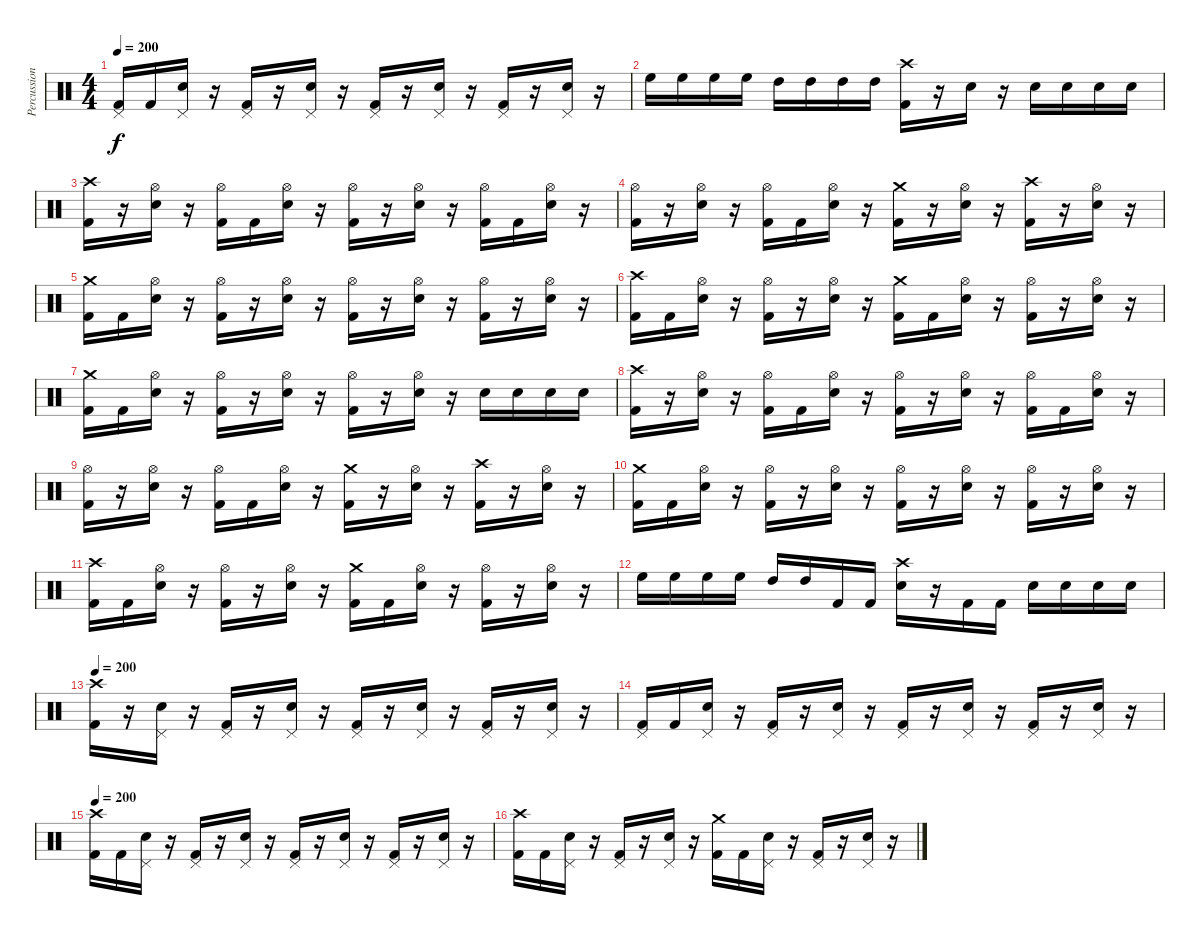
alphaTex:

\track ("Percussion" "Percussion") {instrument percussion}
\staff {score}
\articulation defaults
\ts (4 4)
\tempo 200
\clef neutral
\ks c
("Pedal Hi-Hat (hit)" "Kick (hit) 2").16{dy f} "Kick (hit) 2".16 ("Pedal Hi-Hat (hit)" "Snare (hit) 2").16 r.16 ("Pedal Hi-Hat (hit)" "Kick (hit) 2").16 r.16 ("Pedal Hi-Hat (hit)" "Snare (hit) 2").16 r.16 ("Pedal Hi-Hat (hit)" "Kick (hit) 2").16 r.16 ("Pedal Hi-Hat (hit)" "Snare (hit) 2").16 r.16 ("Pedal Hi-Hat (hit)" "Kick (hit) 2").16 r.16 ("Pedal Hi-Hat (hit)" "Snare (hit) 2").16 r.16 |
"High Floor Tom (hit)".16 "High Floor Tom (hit)".16 "High Floor Tom (hit)".16 "High Floor Tom (hit)".16 "High Tom (hit)".16 "High Tom (hit)".16 "High Tom (hit)".16 "High Tom (hit)".16 ("Crash high (hit)" "Kick (hit) 2").16 r.16 "Snare (hit) 2".16 r.16 "Snare (hit) 2".16 "Snare (hit) 2".16 "Snare (hit) 2".16 "Snare (hit) 2".16 |
("Crash high (hit)" "Kick (hit) 2").16 r.16 ("Hi-Hat (open)" "Snare (hit) 2").16 r.16 ("Hi-Hat (open)" "Kick (hit) 2").16 "Kick (hit) 2".16 ("Hi-Hat (open)" "Snare (hit) 2").16 r.16 ("Hi-Hat (open)" "Kick (hit) 2").16 r.16 ("Hi-Hat (open)" "Snare (hit) 2").16 r.16 ("Hi-Hat (open)" "Kick (hit) 2").16 "Kick (hit) 2".16 ("Hi-Hat (open)" "Snare (hit) 2").16 r.16 |
("Hi-Hat (open)" "Kick (hit) 2").16 r.16 ("Hi-Hat (open)" "Snare (hit) 2").16 r.16 ("Hi-Hat (open)" "Kick (hit) 2").16 "Kick (hit) 2".16 ("Hi-Hat (open)" "Snare (hit) 2").16 r.16 ("Crash medium (hit)" "Kick (hit) 2").16 r.16 ("Hi-Hat (open)" "Snare (hit) 2").16 r.16 ("Crash high (hit)" "Kick (hit) 2").16 r.16 ("Hi-Hat (open)" "Snare (hit) 2").16 r.16 |
("Crash medium (hit)" "Kick (hit) 2").16 "Kick (hit) 2".16 ("Hi-Hat (open)" "Snare (hit) 2").16 r.16 ("Hi-Hat (open)" "Kick (hit) 2").16 r.16 ("Hi-Hat (open)" "Snare (hit) 2").16 r.16 ("Hi-Hat (open)" "Kick (hit) 2").16 r.16 ("Hi-Hat (open)" "Snare (hit) 2").16 r.16 ("Hi-Hat (open)" "Kick (hit) 2").16 r.16 ("Hi-Hat (open)" "Snare (hit) 2").16 r.16 |
("Crash high (hit)" "Kick (hit) 2").16 "Kick (hit) 2".16 ("Hi-Hat (open)" "Snare (hit) 2").16 r.16 ("Hi-Hat (open)" "Kick (hit) 2").16 r.16 ("Hi-Hat (open)" "Snare (hit) 2").16 r.16 ("Crash medium (hit)" "Kick (hit) 2").16 "Kick (hit) 2".16 ("Hi-Hat (open)" "Snare (hit) 2").16 r.16 ("Hi-Hat (open)" "Kick (hit) 2").16 r.16 ("Hi-Hat (open)" "Snare (hit) 2").16 r.16 |
("Crash medium (hit)" "Kick (hit) 2").16 "Kick (hit) 2".16 ("Hi-Hat (open)" "Snare (hit) 2").16 r.16 ("Hi-Hat (open)" "Kick (hit) 2").16 r.16 ("Hi-Hat (open)" "Snare (hit) 2").16 r.16 ("Hi-Hat (open)" "Kick (hit) 2").16 r.16 ("Hi-Hat (open)" "Snare (hit) 2").16 r.16 "Snare (hit) 2".16 "Snare (hit) 2".16 "Snare (hit) 2".16 "Snare (hit) 2".16 |
("Crash high (hit)" "Kick (hit) 2").16 r.16 ("Hi-Hat (open)" "Snare (hit) 2").16 r.16 ("Hi-Hat (open)" "Kick (hit) 2").16 "Kick (hit) 2".16 ("Hi-Hat (open)" "Snare (hit) 2").16 r.16 ("Hi-Hat (open)" "Kick (hit) 2").16 r.16 ("Hi-Hat (open)" "Snare (hit) 2").16 r.16 ("Hi-Hat (open)" "Kick (hit) 2").16 "Kick (hit) 2".16 ("Hi-Hat (open)" "Snare (hit) 2").16 r.16 |
("Hi-Hat (open)" "Kick (hit) 2").16 r.16 ("Hi-Hat (open)" "Snare (hit) 2").16 r.16 ("Hi-Hat (open)" "Kick (hit) 2").16 "Kick (hit) 2".16 ("Hi-Hat (open)" "Snare (hit) 2").16 r.16 ("Crash medium (hit)" "Kick (hit) 2").16 r.16 ("Hi-Hat (open)" "Snare (hit) 2").16 r.16 ("Crash high (hit)" "Kick (hit) 2").16 r.16 ("Hi-Hat (open)" "Snare (hit) 2").16 r.16 |
("Crash medium (hit)" "Kick (hit) 2").16 "Kick (hit) 2".16 ("Hi-Hat (open)" "Snare (hit) 2").16 r.16 ("Hi-Hat (open)" "Kick (hit) 2").16 r.16 ("Hi-Hat (open)" "Snare (hit) 2").16 r.16 ("Hi-Hat (open)" "Kick (hit) 2").16 r.16 ("Hi-Hat (open)" "Snare (hit) 2").16 r.16 ("Hi-Hat (open)" "Kick (hit) 2").16 r.16 ("Hi-Hat (open)" "Snare (hit) 2").16 r.16 |
("Crash high (hit)" "Kick (hit) 2").16 "Kick (hit) 2".16 ("Hi-Hat (open)" "Snare (hit) 2").16 r.16 ("Hi-Hat (open)" "Kick (hit) 2").16 r.16 ("Hi-Hat (open)" "Snare (hit) 2").16 r.16 ("Crash medium (hit)" "Kick (hit) 2").16 "Kick (hit) 2".16 ("Hi-Hat (open)" "Snare (hit) 2").16 r.16 ("Hi-Hat (open)" "Kick (hit) 2").16 r.16 ("Hi-Hat (open)" "Snare (hit) 2").16 r.16 |
"High Floor Tom (hit)".16 "High Floor Tom (hit)".16 "High Floor Tom (hit)".16 "High Floor Tom (hit)".16 "High Tom (hit)".16 "High Tom (hit)".16 "Kick (hit) 2".16 "Kick (hit) 2".16 ("Crash high (hit)" "Snare (hit) 2").16 r.16 "Kick (hit) 2".16 "Kick (hit) 2".16 "Snare (hit) 2".16 "Snare (hit) 2".16 "Snare (hit) 2".16 "Snare (hit) 2".16 |
\tempo 200
("Crash high (hit)" "Kick (hit) 2").16 r.16 ("Pedal Hi-Hat (hit)" "Snare (hit) 2").16 r.16 ("Pedal Hi-Hat (hit)" "Kick (hit) 2").16 r.16 ("Pedal Hi-Hat (hit)" "Snare (hit) 2").16 r.16 ("Pedal Hi-Hat (hit)" "Kick (hit) 2").16 r.16 ("Pedal Hi-Hat (hit)" "Snare (hit) 2").16 r.16 ("Pedal Hi-Hat (hit)" "Kick (hit) 2").16 r.16 ("Pedal Hi-Hat (hit)" "Snare (hit) 2").16 r.16 |
("Pedal Hi-Hat (hit)" "Kick (hit) 2").16 "Kick (hit) 2".16 ("Pedal Hi-Hat (hit)" "Snare (hit) 2").16 r.16 ("Pedal Hi-Hat (hit)" "Kick (hit) 2").16 r.16 ("Pedal Hi-Hat (hit)" "Snare (hit) 2").16 r.16 ("Pedal Hi-Hat (hit)" "Kick (hit) 2").16 r.16 ("Pedal Hi-Hat (hit)" "Snare (hit) 2").16 r.16 ("Pedal Hi-Hat (hit)" "Kick (hit) 2").16 r.16 ("Pedal Hi-Hat (hit)" "Snare (hit) 2").16 r.16 |
\tempo 200
("Crash high (hit)" "Kick (hit) 2").16 "Kick (hit) 2".16 ("Pedal Hi-Hat (hit)" "Snare (hit) 2").16 r.16 ("Pedal Hi-Hat (hit)" "Kick (hit) 2").16 r.16 ("Pedal Hi-Hat (hit)" "Snare (hit) 2").16 r.16 ("Pedal Hi-Hat (hit)" "Kick (hit) 2").16 r.16 ("Pedal Hi-Hat (hit)" "Snare (hit) 2").16 r.16 ("Pedal Hi-Hat (hit)" "Kick (hit) 2").16 r.16 ("Pedal Hi-Hat (hit)" "Snare (hit) 2").16 r.16 |
("Crash high (hit)" "Kick (hit) 2").16 "Kick (hit) 2".16 ("Pedal Hi-Hat (hit)" "Snare (hit) 2").16 r.16 ("Pedal Hi-Hat (hit)" "Kick (hit) 2").16 r.16 ("Pedal Hi-Hat (hit)" "Snare (hit) 2").16 r.16 ("Crash medium (hit)" "Kick (hit) 2").16 "Kick (hit) 2".16 ("Pedal Hi-Hat (hit)" "Snare (hit) 2").16 r.16 ("Pedal Hi-Hat (hit)" "Kick (hit) 2").16 r.16 ("Pedal Hi-Hat (hit)" "Snare (hit) 2").16 r.16
